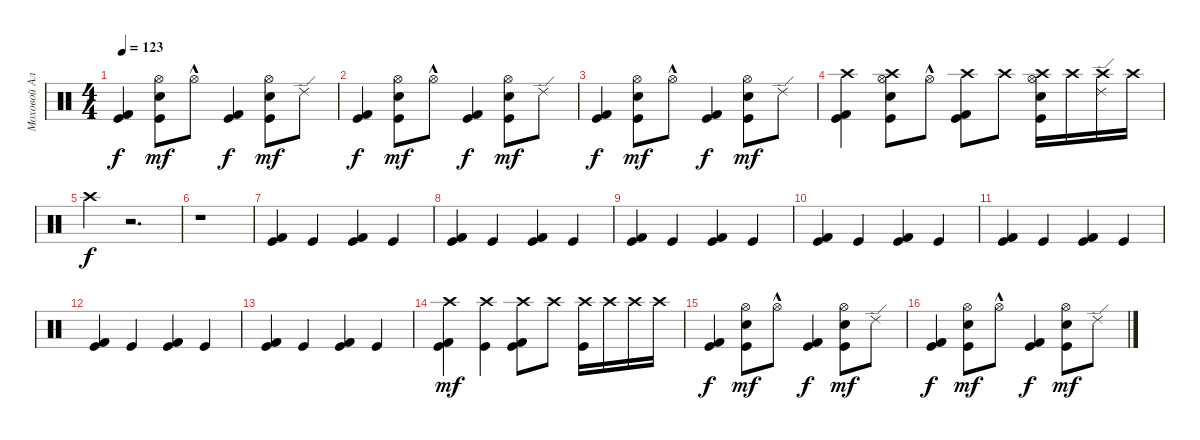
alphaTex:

\track ("Moxoвой Алексей" "Moxoвой Ал") {instrument percussion}
\staff {score}
\articulation defaults
\ts (4 4)
\tempo 123
\clef neutral
\ks c
("Kick (hit) 2" "Kick (hit)").4{dy f} ("Kick (hit)" "Hand Clap (hit)" "Hi-Hat (open)").8{dy mf} "Hi-Hat (open)"{hac}.8 ("Kick (hit) 2" "Kick (hit)").4{dy f} ("Kick (hit)" "Hand Clap (hit)" "Hi-Hat (open)").8{dy mf} "Ride (edge) 2".8 |
("Kick (hit) 2" "Kick (hit)").4{dy f} ("Kick (hit)" "Hand Clap (hit)" "Hi-Hat (open)").8{dy mf} "Hi-Hat (open)"{hac}.8 ("Kick (hit) 2" "Kick (hit)").4{dy f} ("Kick (hit)" "Hand Clap (hit)" "Hi-Hat (open)").8{dy mf} "Ride (edge) 2".8 |
("Kick (hit) 2" "Kick (hit)").4{dy f} ("Kick (hit)" "Hand Clap (hit)" "Hi-Hat (open)").8{dy mf} "Hi-Hat (open)"{hac}.8 ("Kick (hit) 2" "Kick (hit)").4{dy f} ("Hand Clap (hit)" "Kick (hit)" "Hi-Hat (open)").8{dy mf} "Ride (edge) 2".8 |
("Kick (hit) 2" "Kick (hit)" "Crash high (hit)").4 ("Kick (hit)" "Hand Clap (hit)" "Hi-Hat (open)" "Crash high (hit)").8 "Hi-Hat (open)"{hac}.8 ("Kick (hit) 2" "Kick (hit)" "Crash high (hit)").8 "Crash high (hit)".8 ("Hand Clap (hit)" "Kick (hit)" "Hi-Hat (open)" "Crash high (hit)").16 "Crash high (hit)".16 ("Crash high (hit)" "Ride (edge) 2").16 "Crash high (hit)".16 |
"Crash high (hit)".4{dy f} r.2{d} |
r.1 |
("Kick (hit)" "Kick (hit) 2").4 "Kick (hit)".4 ("Kick (hit) 2" "Kick (hit)").4 "Kick (hit)".4 |
("Kick (hit)" "Kick (hit) 2").4 "Kick (hit)".4 ("Kick (hit) 2" "Kick (hit)").4 "Kick (hit)".4 |
("Kick (hit)" "Kick (hit) 2").4 "Kick (hit)".4 ("Kick (hit)" "Kick (hit) 2").4 "Kick (hit)".4 |
("Kick (hit)" "Kick (hit) 2").4 "Kick (hit)".4 ("Kick (hit) 2" "Kick (hit)").4 "Kick (hit)".4 |
("Kick (hit) 2" "Kick (hit)").4 "Kick (hit)".4 ("Kick (hit) 2" "Kick (hit)").4 "Kick (hit)".4 |
("Kick (hit)" "Kick (hit) 2").4 "Kick (hit)".4 ("Kick (hit) 2" "Kick (hit)").4 "Kick (hit)".4 |
("Kick (hit) 2" "Kick (hit)").4 "Kick (hit)".4 ("Kick (hit) 2" "Kick (hit)").4 "Kick (hit)".4 |
("Kick (hit) 2" "Kick (hit)" "Crash high (hit)").4{dy mf} ("Kick (hit)" "Crash high (hit)").4 ("Kick (hit)" "Kick (hit) 2" "Crash high (hit)").8 "Crash high (hit)".8 ("Kick (hit)" "Crash high (hit)").16 "Crash high (hit)".16 "Crash high (hit)".16 "Crash high (hit)".16 |
("Kick (hit) 2" "Kick (hit)").4{dy f} ("Kick (hit)" "Hi-Hat (open)" "Hand Clap (hit)").8{dy mf} "Hi-Hat (open)"{hac}.8 ("Kick (hit) 2" "Kick (hit)").4{dy f} ("Hi-Hat (open)" "Kick (hit)" "Hand Clap (hit)").8{dy mf} "Ride (edge) 2".8 |
("Kick (hit) 2" "Kick (hit)").4{dy f} ("Kick (hit)" "Hand Clap (hit)" "Hi-Hat (open)").8{dy mf} "Hi-Hat (open)"{hac}.8 ("Kick (hit) 2" "Kick (hit)").4{dy f} ("Hand Clap (hit)" "Hi-Hat (open)" "Kick (hit)").8{dy mf} "Ride (edge) 2".8
